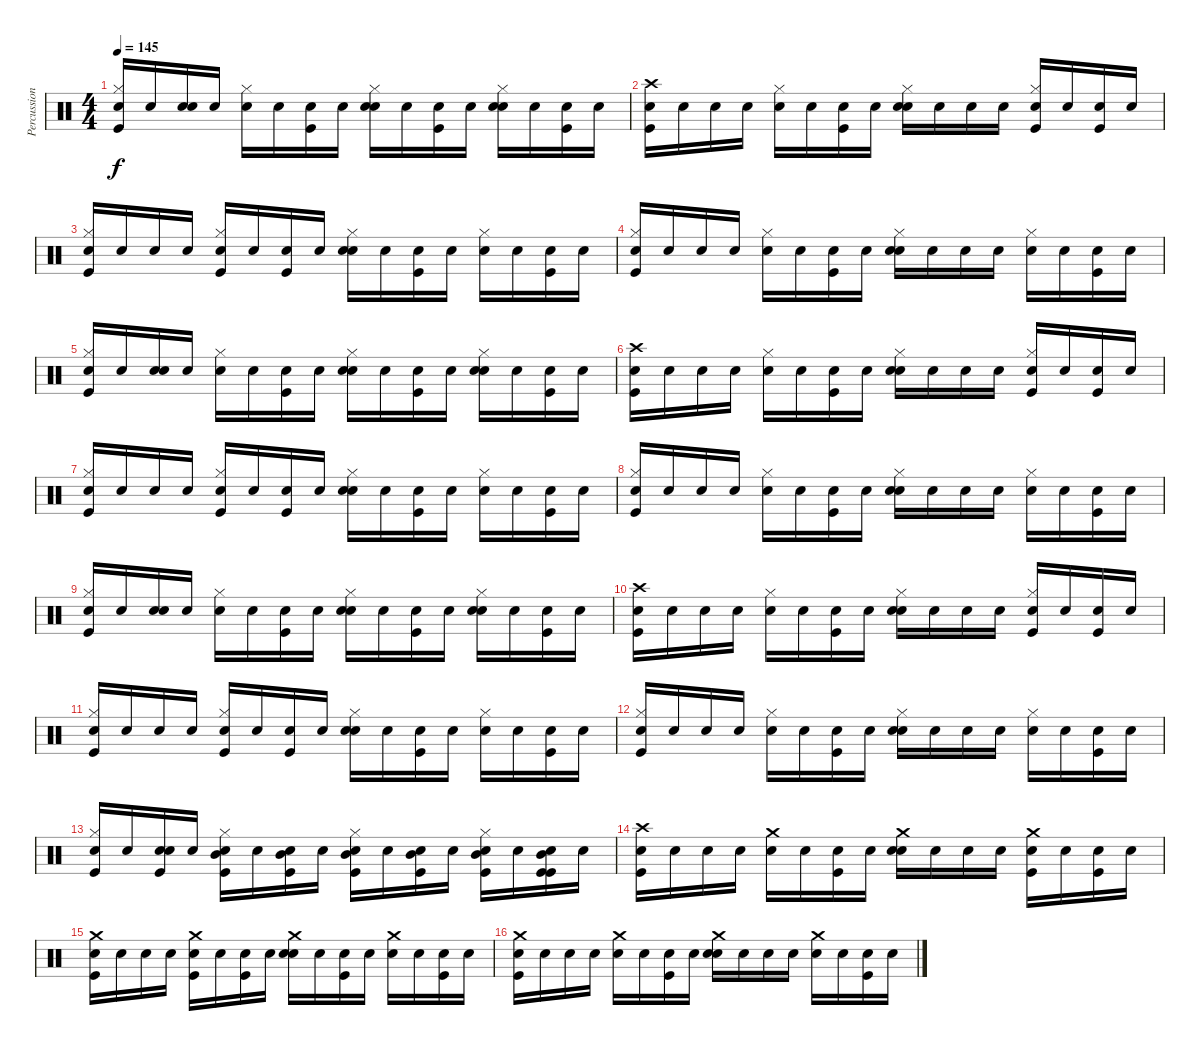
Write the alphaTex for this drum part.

\track ("Percussion" "Percussion") {instrument percussion}
\staff {score}
\articulation defaults
\ts (4 4)
\tempo 145
\clef neutral
\ks c
("Snare (hit)" "Hi-Hat (closed)" "Kick (hit)").16{dy f} "Snare (hit)".16 ("Snare (hit)" "Snare (hit) 2").16 "Snare (hit)".16 ("Snare (hit)" "Hi-Hat (closed)").16 "Snare (hit)".16 ("Snare (hit)" "Kick (hit)").16 "Snare (hit)".16 ("Snare (hit)" "Snare (hit) 2" "Hi-Hat (closed)").16 "Snare (hit)".16 ("Snare (hit)" "Kick (hit)").16 "Snare (hit)".16 ("Snare (hit)" "Snare (hit) 2" "Hi-Hat (closed)").16 "Snare (hit)".16 ("Snare (hit)" "Kick (hit)").16 "Snare (hit)".16 |
("Snare (hit)" "Crash high (hit)" "Kick (hit)").16 "Snare (hit)".16 "Snare (hit)".16 "Snare (hit)".16 ("Snare (hit)" "Hi-Hat (closed)").16 "Snare (hit)".16 ("Snare (hit)" "Kick (hit)").16 "Snare (hit)".16 ("Snare (hit)" "Hi-Hat (closed)" "Snare (hit) 2").16 "Snare (hit)".16 "Snare (hit)".16 "Snare (hit)".16 ("Snare (hit)" "Hi-Hat (closed)" "Kick (hit)").16 "Snare (hit)".16 ("Snare (hit)" "Kick (hit)").16 "Snare (hit)".16 |
("Snare (hit)" "Hi-Hat (closed)" "Kick (hit)").16 "Snare (hit)".16 "Snare (hit)".16 "Snare (hit)".16 ("Snare (hit)" "Hi-Hat (closed)" "Kick (hit)").16 "Snare (hit)".16 ("Snare (hit)" "Kick (hit)").16 "Snare (hit)".16 ("Snare (hit)" "Hi-Hat (closed)" "Snare (hit) 2").16 "Snare (hit)".16 ("Snare (hit)" "Kick (hit)").16 "Snare (hit)".16 ("Snare (hit)" "Hi-Hat (closed)").16 "Snare (hit)".16 ("Snare (hit)" "Kick (hit)").16 "Snare (hit)".16 |
("Snare (hit)" "Hi-Hat (closed)" "Kick (hit)").16 "Snare (hit)".16 "Snare (hit)".16 "Snare (hit)".16 ("Snare (hit)" "Hi-Hat (closed)").16 "Snare (hit)".16 ("Snare (hit)" "Kick (hit)").16 "Snare (hit)".16 ("Snare (hit)" "Hi-Hat (closed)" "Snare (hit) 2").16 "Snare (hit)".16 "Snare (hit)".16 "Snare (hit)".16 ("Snare (hit)" "Hi-Hat (closed)").16 "Snare (hit)".16 ("Snare (hit)" "Kick (hit)").16 "Snare (hit)".16 |
("Snare (hit)" "Hi-Hat (closed)" "Kick (hit)").16 "Snare (hit)".16 ("Snare (hit)" "Snare (hit) 2").16 "Snare (hit)".16 ("Snare (hit)" "Hi-Hat (closed)").16 "Snare (hit)".16 ("Snare (hit)" "Kick (hit)").16 "Snare (hit)".16 ("Snare (hit)" "Snare (hit) 2" "Hi-Hat (closed)").16 "Snare (hit)".16 ("Snare (hit)" "Kick (hit)").16 "Snare (hit)".16 ("Snare (hit)" "Snare (hit) 2" "Hi-Hat (closed)").16 "Snare (hit)".16 ("Snare (hit)" "Kick (hit)").16 "Snare (hit)".16 |
("Snare (hit)" "Crash high (hit)" "Kick (hit)").16 "Snare (hit)".16 "Snare (hit)".16 "Snare (hit)".16 ("Snare (hit)" "Hi-Hat (closed)").16 "Snare (hit)".16 ("Snare (hit)" "Kick (hit)").16 "Snare (hit)".16 ("Snare (hit)" "Hi-Hat (closed)" "Snare (hit) 2").16 "Snare (hit)".16 "Snare (hit)".16 "Snare (hit)".16 ("Snare (hit)" "Hi-Hat (closed)" "Kick (hit)").16 "Snare (hit)".16 ("Snare (hit)" "Kick (hit)").16 "Snare (hit)".16 |
("Snare (hit)" "Hi-Hat (closed)" "Kick (hit)").16 "Snare (hit)".16 "Snare (hit)".16 "Snare (hit)".16 ("Snare (hit)" "Hi-Hat (closed)" "Kick (hit)").16 "Snare (hit)".16 ("Snare (hit)" "Kick (hit)").16 "Snare (hit)".16 ("Snare (hit)" "Hi-Hat (closed)" "Snare (hit) 2").16 "Snare (hit)".16 ("Snare (hit)" "Kick (hit)").16 "Snare (hit)".16 ("Snare (hit)" "Hi-Hat (closed)").16 "Snare (hit)".16 ("Snare (hit)" "Kick (hit)").16 "Snare (hit)".16 |
("Snare (hit)" "Hi-Hat (closed)" "Kick (hit)").16 "Snare (hit)".16 "Snare (hit)".16 "Snare (hit)".16 ("Snare (hit)" "Hi-Hat (closed)").16 "Snare (hit)".16 ("Snare (hit)" "Kick (hit)").16 "Snare (hit)".16 ("Snare (hit)" "Hi-Hat (closed)" "Snare (hit) 2").16 "Snare (hit)".16 "Snare (hit)".16 "Snare (hit)".16 ("Snare (hit)" "Hi-Hat (closed)").16 "Snare (hit)".16 ("Snare (hit)" "Kick (hit)").16 "Snare (hit)".16 |
("Snare (hit)" "Hi-Hat (closed)" "Kick (hit)").16 "Snare (hit)".16 ("Snare (hit)" "Snare (hit) 2").16 "Snare (hit)".16 ("Snare (hit)" "Hi-Hat (closed)").16 "Snare (hit)".16 ("Snare (hit)" "Kick (hit)").16 "Snare (hit)".16 ("Snare (hit)" "Snare (hit) 2" "Hi-Hat (closed)").16 "Snare (hit)".16 ("Snare (hit)" "Kick (hit)").16 "Snare (hit)".16 ("Snare (hit)" "Snare (hit) 2" "Hi-Hat (closed)").16 "Snare (hit)".16 ("Snare (hit)" "Kick (hit)").16 "Snare (hit)".16 |
("Snare (hit)" "Crash high (hit)" "Kick (hit)").16 "Snare (hit)".16 "Snare (hit)".16 "Snare (hit)".16 ("Snare (hit)" "Hi-Hat (closed)").16 "Snare (hit)".16 ("Snare (hit)" "Kick (hit)").16 "Snare (hit)".16 ("Snare (hit)" "Hi-Hat (closed)" "Snare (hit) 2").16 "Snare (hit)".16 "Snare (hit)".16 "Snare (hit)".16 ("Snare (hit)" "Hi-Hat (closed)" "Kick (hit)").16 "Snare (hit)".16 ("Snare (hit)" "Kick (hit)").16 "Snare (hit)".16 |
("Snare (hit)" "Hi-Hat (closed)" "Kick (hit)").16 "Snare (hit)".16 "Snare (hit)".16 "Snare (hit)".16 ("Snare (hit)" "Hi-Hat (closed)" "Kick (hit)").16 "Snare (hit)".16 ("Snare (hit)" "Kick (hit)").16 "Snare (hit)".16 ("Snare (hit)" "Hi-Hat (closed)" "Snare (hit) 2").16 "Snare (hit)".16 ("Snare (hit)" "Kick (hit)").16 "Snare (hit)".16 ("Snare (hit)" "Hi-Hat (closed)").16 "Snare (hit)".16 ("Snare (hit)" "Kick (hit)").16 "Snare (hit)".16 |
("Snare (hit)" "Hi-Hat (closed)" "Kick (hit)").16 "Snare (hit)".16 "Snare (hit)".16 "Snare (hit)".16 ("Snare (hit)" "Hi-Hat (closed)").16 "Snare (hit)".16 ("Snare (hit)" "Kick (hit)").16 "Snare (hit)".16 ("Snare (hit)" "Hi-Hat (closed)" "Snare (hit) 2").16 "Snare (hit)".16 "Snare (hit)".16 "Snare (hit)".16 ("Snare (hit)" "Hi-Hat (closed)").16 "Snare (hit)".16 ("Snare (hit)" "Kick (hit)").16 "Snare (hit)".16 |
("Snare (hit)" "Hi-Hat (closed)" "Kick (hit)").16 "Snare (hit)".16 ("Snare (hit)" "Snare (hit) 2" "Kick (hit)").16 "Snare (hit)".16 ("Snare (hit)" "Mid Tom (hit)" "Hi-Hat (closed)" "Kick (hit)").16 "Snare (hit)".16 ("Snare (hit)" "Mid Tom (hit)" "Kick (hit)").16 "Snare (hit)".16 ("Snare (hit)" "Mid Tom (hit)" "Hi-Hat (closed)" "Kick (hit)").16 "Snare (hit)".16 ("Snare (hit)" "Mid Tom (hit)" "Kick (hit)").16 "Snare (hit)".16 ("Snare (hit)" "Mid Tom (hit)" "Hi-Hat (closed)" "Kick (hit)").16 "Snare (hit)".16 ("Snare (hit)" "Mid Tom (hit)" "Kick (hit)" "Kick (hit)").16 "Snare (hit)".16 |
("Snare (hit)" "Crash high (hit)" "Kick (hit)").16 "Snare (hit)".16 "Snare (hit)".16 "Snare (hit)".16 ("Snare (hit)" "Crash medium (hit)").16 "Snare (hit)".16 ("Snare (hit)" "Kick (hit)").16 "Snare (hit)".16 ("Snare (hit)" "Crash medium (hit)" "Snare (hit) 2").16 "Snare (hit)".16 "Snare (hit)".16 "Snare (hit)".16 ("Snare (hit)" "Crash medium (hit)" "Kick (hit)").16 "Snare (hit)".16 ("Snare (hit)" "Kick (hit)").16 "Snare (hit)".16 |
("Snare (hit)" "Crash medium (hit)" "Kick (hit)").16 "Snare (hit)".16 "Snare (hit)".16 "Snare (hit)".16 ("Snare (hit)" "Crash medium (hit)" "Kick (hit)").16 "Snare (hit)".16 ("Snare (hit)" "Kick (hit)").16 "Snare (hit)".16 ("Snare (hit)" "Crash medium (hit)" "Snare (hit) 2").16 "Snare (hit)".16 ("Snare (hit)" "Kick (hit)").16 "Snare (hit)".16 ("Snare (hit)" "Crash medium (hit)").16 "Snare (hit)".16 ("Snare (hit)" "Kick (hit)").16 "Snare (hit)".16 |
("Snare (hit)" "Crash medium (hit)" "Kick (hit)").16 "Snare (hit)".16 "Snare (hit)".16 "Snare (hit)".16 ("Snare (hit)" "Crash medium (hit)").16 "Snare (hit)".16 ("Snare (hit)" "Kick (hit)").16 "Snare (hit)".16 ("Snare (hit)" "Crash medium (hit)" "Snare (hit) 2").16 "Snare (hit)".16 "Snare (hit)".16 "Snare (hit)".16 ("Snare (hit)" "Crash medium (hit)").16 "Snare (hit)".16 ("Snare (hit)" "Kick (hit)").16 "Snare (hit)".16
